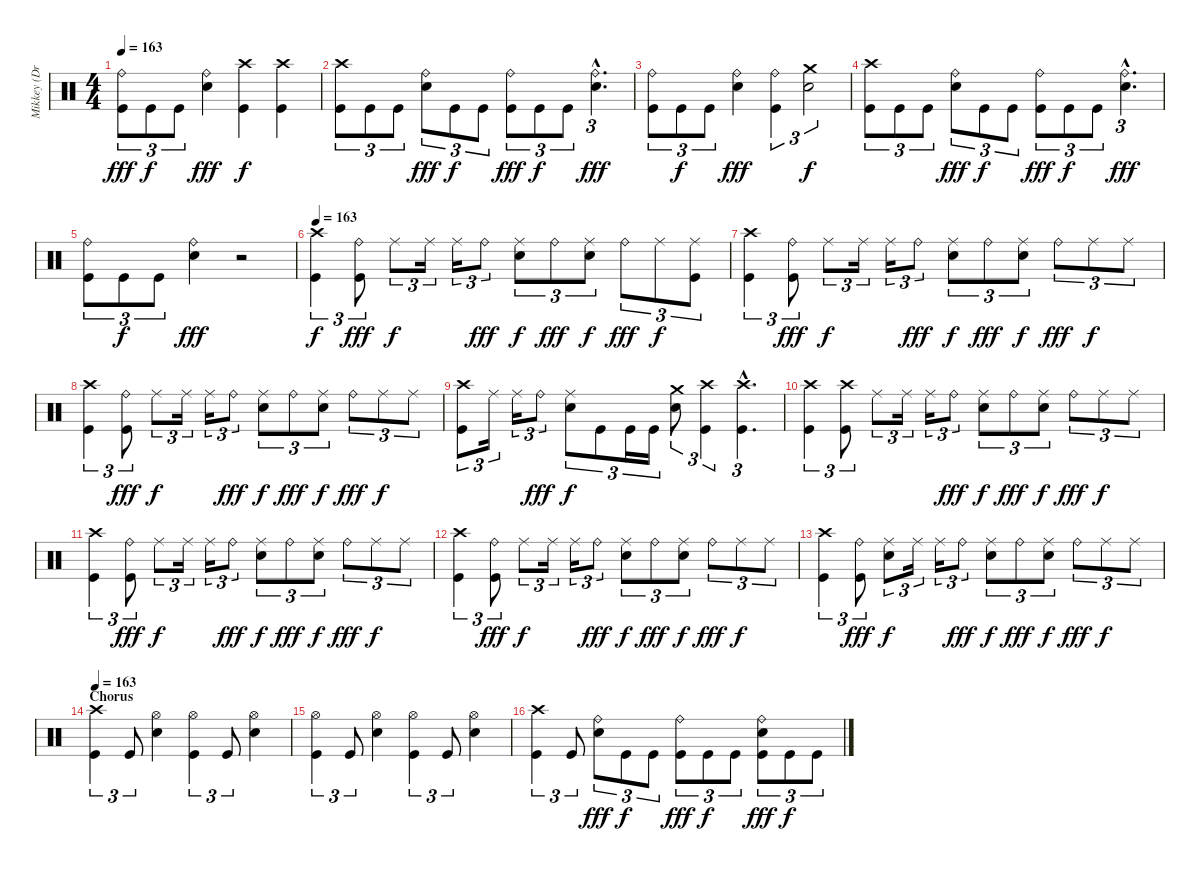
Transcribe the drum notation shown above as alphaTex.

\track ("Mikkey (Drums)" "Mikkey (Dr") {instrument percussion}
\staff {score}
\articulation defaults
\ts (4 4)
\tempo 163
\clef neutral
\ks c
("Ride (bell)" "Kick (hit)").8{tu (3 2) dy fff} "Kick (hit)".8{tu (3 2) dy f} "Kick (hit)".8{tu (3 2)} ("Ride (bell)" "Electric Snare (hit)").4{dy fff} ("Crash high (hit)" "Kick (hit)").4{dy f} ("Crash high (hit)" "Kick (hit)").4 |
("Crash high (hit)" "Kick (hit)").8{tu (3 2)} "Kick (hit)".8{tu (3 2)} "Kick (hit)".8{tu (3 2)} ("Ride (bell)" "Electric Snare (hit)").8{tu (3 2) dy fff} "Kick (hit)".8{tu (3 2) dy f} "Kick (hit)".8{tu (3 2)} ("Ride (bell)" "Kick (hit)").8{tu (3 2) dy fff} "Kick (hit)".8{tu (3 2) dy f} "Kick (hit)".8{tu (3 2)} ("Ride (bell)"{hac} "Electric Snare (hit)"{hac}).4{d tu (3 2) dy fff} |
("Ride (bell)" "Kick (hit)").8{tu (3 2)} "Kick (hit)".8{tu (3 2) dy f} "Kick (hit)".8{tu (3 2)} ("Ride (bell)" "Electric Snare (hit)").4{dy fff} ("Ride (bell)" "Kick (hit)").4{tu (3 2)} ("Crash medium (hit)" "Electric Snare (hit)").2{tu (3 2) dy f} |
("Crash high (hit)" "Kick (hit)").8{tu (3 2)} "Kick (hit)".8{tu (3 2)} "Kick (hit)".8{tu (3 2)} ("Ride (bell)" "Electric Snare (hit)").8{tu (3 2) dy fff} "Kick (hit)".8{tu (3 2) dy f} "Kick (hit)".8{tu (3 2)} ("Ride (bell)" "Kick (hit)").8{tu (3 2) dy fff} "Kick (hit)".8{tu (3 2) dy f} "Kick (hit)".8{tu (3 2)} ("Ride (bell)"{hac} "Electric Snare (hit)"{hac}).4{d tu (3 2) dy fff} |
("Ride (bell)" "Kick (hit)").8{tu (3 2)} "Kick (hit)".8{tu (3 2) dy f} "Kick (hit)".8{tu (3 2)} ("Ride (bell)" "Electric Snare (hit)").4{dy fff} r.2 |
\tempo 163
("Crash high (hit)" "Kick (hit)").4{tu (3 2) dy f} ("Ride (bell)" "Kick (hit)").8{tu (3 2) dy fff} "Ride (middle)".8{tu (3 2) dy f} "Ride (middle)".16{tu (3 2)} "Ride (middle)".16{tu (3 2)} "Ride (bell)".8{tu (3 2) dy fff} ("Ride (middle)" "Electric Snare (hit)").8{tu (3 2) dy f} "Ride (bell)".8{tu (3 2) dy fff} ("Ride (middle)" "Electric Snare (hit)").8{tu (3 2) dy f} "Ride (bell)".8{tu (3 2) dy fff} "Ride (middle)".8{tu (3 2) dy f} ("Ride (middle)" "Kick (hit)").8{tu (3 2)} |
("Crash high (hit)" "Kick (hit)").4{tu (3 2)} ("Ride (bell)" "Kick (hit)").8{tu (3 2) dy fff} "Ride (middle)".8{tu (3 2) dy f} "Ride (middle)".16{tu (3 2)} "Ride (middle)".16{tu (3 2)} "Ride (bell)".8{tu (3 2) dy fff} ("Ride (middle)" "Electric Snare (hit)").8{tu (3 2) dy f} "Ride (bell)".8{tu (3 2) dy fff} ("Ride (middle)" "Electric Snare (hit)").8{tu (3 2) dy f} "Ride (bell)".8{tu (3 2) dy fff} "Ride (middle)".8{tu (3 2) dy f} "Ride (middle)".8{tu (3 2)} |
("Crash high (hit)" "Kick (hit)").4{tu (3 2)} ("Ride (bell)" "Kick (hit)").8{tu (3 2) dy fff} "Ride (middle)".8{tu (3 2) dy f} "Ride (middle)".16{tu (3 2)} "Ride (middle)".16{tu (3 2)} "Ride (bell)".8{tu (3 2) dy fff} ("Ride (middle)" "Electric Snare (hit)").8{tu (3 2) dy f} "Ride (bell)".8{tu (3 2) dy fff} ("Ride (middle)" "Electric Snare (hit)").8{tu (3 2) dy f} "Ride (bell)".8{tu (3 2) dy fff} "Ride (middle)".8{tu (3 2) dy f} "Ride (middle)".8{tu (3 2)} |
("Crash high (hit)" "Kick (hit)").8{tu (3 2)} "Ride (middle)".16{tu (3 2)} "Ride (middle)".16{tu (3 2)} "Ride (bell)".8{tu (3 2) dy fff} ("Ride (middle)" "Electric Snare (hit)").8{tu (3 2) dy f} "Kick (hit)".8{tu (3 2)} "Kick (hit)".16{tu (3 2)} "Kick (hit)".16{tu (3 2)} ("Crash medium (hit)" "Electric Snare (hit)").8{tu (3 2)} ("Crash high (hit)" "Kick (hit)").4{tu (3 2)} ("Crash high (hit)"{hac} "Kick (hit)"{hac}).4{d tu (3 2)} |
("Crash high (hit)" "Kick (hit)").4{tu (3 2)} ("Crash high (hit)" "Kick (hit)").8{tu (3 2)} "Ride (middle)".8{tu (3 2)} "Ride (middle)".16{tu (3 2)} "Ride (middle)".16{tu (3 2)} "Ride (bell)".8{tu (3 2) dy fff} ("Ride (middle)" "Electric Snare (hit)").8{tu (3 2) dy f} "Ride (bell)".8{tu (3 2) dy fff} ("Ride (middle)" "Electric Snare (hit)").8{tu (3 2) dy f} "Ride (bell)".8{tu (3 2) dy fff} "Ride (middle)".8{tu (3 2) dy f} "Ride (middle)".8{tu (3 2)} |
("Crash high (hit)" "Kick (hit)").4{tu (3 2)} ("Ride (bell)" "Kick (hit)").8{tu (3 2) dy fff} "Ride (middle)".8{tu (3 2) dy f} "Ride (middle)".16{tu (3 2)} "Ride (middle)".16{tu (3 2)} "Ride (bell)".8{tu (3 2) dy fff} ("Ride (middle)" "Electric Snare (hit)").8{tu (3 2) dy f} "Ride (bell)".8{tu (3 2) dy fff} ("Ride (middle)" "Electric Snare (hit)").8{tu (3 2) dy f} "Ride (bell)".8{tu (3 2) dy fff} "Ride (middle)".8{tu (3 2) dy f} "Ride (middle)".8{tu (3 2)} |
("Crash high (hit)" "Kick (hit)").4{tu (3 2)} ("Ride (bell)" "Kick (hit)").8{tu (3 2) dy fff} "Ride (middle)".8{tu (3 2) dy f} "Ride (middle)".16{tu (3 2)} "Ride (middle)".16{tu (3 2)} "Ride (bell)".8{tu (3 2) dy fff} ("Ride (middle)" "Electric Snare (hit)").8{tu (3 2) dy f} "Ride (bell)".8{tu (3 2) dy fff} ("Ride (middle)" "Electric Snare (hit)").8{tu (3 2) dy f} "Ride (bell)".8{tu (3 2) dy fff} "Ride (middle)".8{tu (3 2) dy f} "Ride (middle)".8{tu (3 2)} |
("Crash high (hit)" "Kick (hit)").4{tu (3 2)} ("Ride (bell)" "Kick (hit)").8{tu (3 2) dy fff} ("Ride (middle)" "Electric Snare (hit)").8{tu (3 2) dy f} "Ride (middle)".16{tu (3 2)} "Ride (middle)".16{tu (3 2)} "Ride (bell)".8{tu (3 2) dy fff} ("Ride (middle)" "Electric Snare (hit)").8{tu (3 2) dy f} "Ride (bell)".8{tu (3 2) dy fff} ("Ride (middle)" "Electric Snare (hit)").8{tu (3 2) dy f} "Ride (bell)".8{tu (3 2) dy fff} "Ride (middle)".8{tu (3 2) dy f} "Ride (middle)".8{tu (3 2)} |
\section ("" "Chorus")
\tempo 163
("Crash high (hit)" "Kick (hit)").4{tu (3 2)} "Kick (hit)".8{tu (3 2)} ("Hi-Hat (open)" "Electric Snare (hit)").4 ("Hi-Hat (open)" "Kick (hit)").4{tu (3 2)} "Kick (hit)".8{tu (3 2)} ("Hi-Hat (open)" "Electric Snare (hit)").4 |
("Hi-Hat (open)" "Kick (hit)").4{tu (3 2)} "Kick (hit)".8{tu (3 2)} ("Hi-Hat (open)" "Electric Snare (hit)").4 ("Hi-Hat (open)" "Kick (hit)").4{tu (3 2)} "Kick (hit)".8{tu (3 2)} ("Hi-Hat (open)" "Electric Snare (hit)").4 |
("Crash high (hit)" "Kick (hit)").4{tu (3 2)} "Kick (hit)".8{tu (3 2)} ("Ride (bell)" "Electric Snare (hit)").8{tu (3 2) dy fff} "Kick (hit)".8{tu (3 2) dy f} "Kick (hit)".8{tu (3 2)} ("Ride (bell)" "Kick (hit)").8{tu (3 2) dy fff} "Kick (hit)".8{tu (3 2) dy f} "Kick (hit)".8{tu (3 2)} ("Ride (bell)" "Electric Snare (hit)" "Kick (hit)").8{tu (3 2) dy fff} "Kick (hit)".8{tu (3 2) dy f} "Kick (hit)".8{tu (3 2)}
